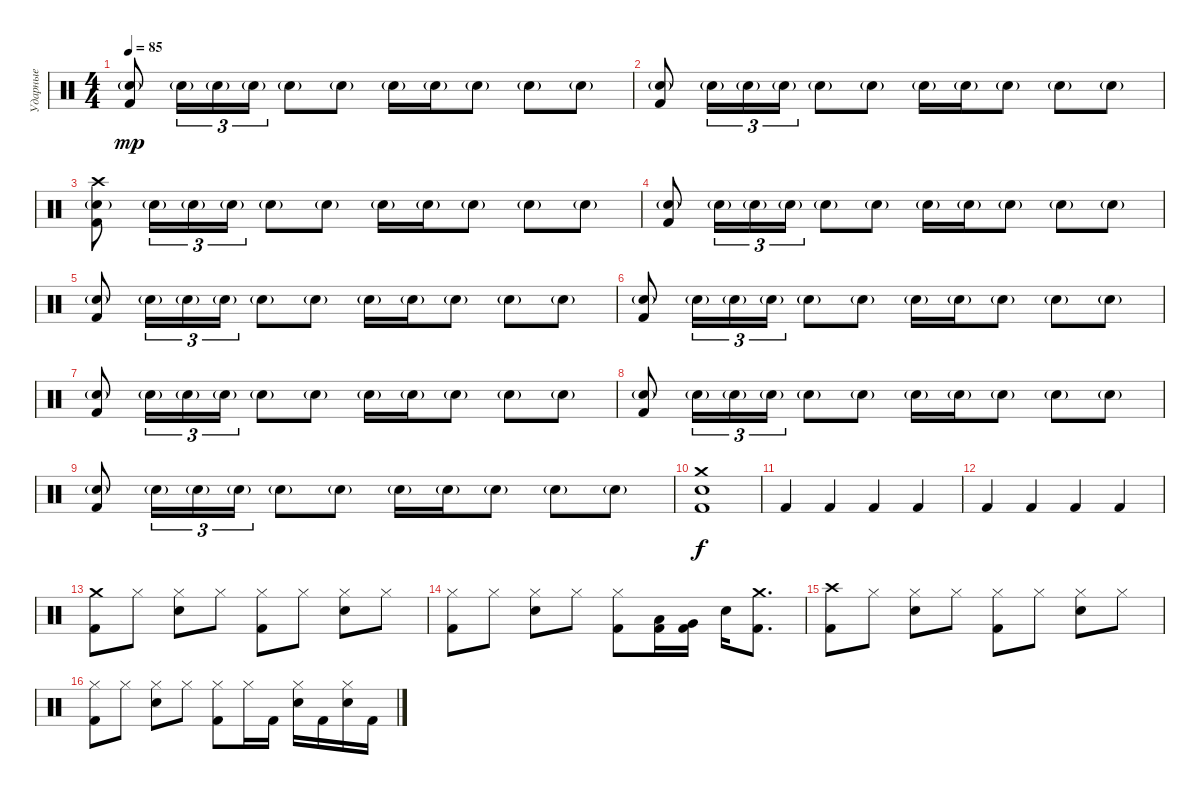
\track ("Ударные" "Ударные") {instrument percussion}
\staff {score}
\articulation defaults
\ts (4 4)
\tempo 85
\clef neutral
\ks c
("Electric Snare (hit)"{g} "Kick (hit) 2").8{dy mp} "Electric Snare (hit)"{g}.16{tu (3 2)} "Electric Snare (hit)"{g}.16{tu (3 2)} "Electric Snare (hit)"{g}.16{tu (3 2)} "Electric Snare (hit)"{g}.8 "Electric Snare (hit)"{g}.8 "Electric Snare (hit)"{g}.16 "Electric Snare (hit)"{g}.16 "Electric Snare (hit)"{g}.8 "Electric Snare (hit)"{g}.8 "Electric Snare (hit)"{g}.8 |
("Electric Snare (hit)"{g} "Kick (hit) 2").8 "Electric Snare (hit)"{g}.16{tu (3 2)} "Electric Snare (hit)"{g}.16{tu (3 2)} "Electric Snare (hit)"{g}.16{tu (3 2)} "Electric Snare (hit)"{g}.8 "Electric Snare (hit)"{g}.8 "Electric Snare (hit)"{g}.16 "Electric Snare (hit)"{g}.16 "Electric Snare (hit)"{g}.8 "Electric Snare (hit)"{g}.8 "Electric Snare (hit)"{g}.8 |
("Crash high (hit)" "Electric Snare (hit)"{g} "Kick (hit) 2").8 "Electric Snare (hit)"{g}.16{tu (3 2)} "Electric Snare (hit)"{g}.16{tu (3 2)} "Electric Snare (hit)"{g}.16{tu (3 2)} "Electric Snare (hit)"{g}.8 "Electric Snare (hit)"{g}.8 "Electric Snare (hit)"{g}.16 "Electric Snare (hit)"{g}.16 "Electric Snare (hit)"{g}.8 "Electric Snare (hit)"{g}.8 "Electric Snare (hit)"{g}.8 |
("Electric Snare (hit)"{g} "Kick (hit) 2").8 "Electric Snare (hit)"{g}.16{tu (3 2)} "Electric Snare (hit)"{g}.16{tu (3 2)} "Electric Snare (hit)"{g}.16{tu (3 2)} "Electric Snare (hit)"{g}.8 "Electric Snare (hit)"{g}.8 "Electric Snare (hit)"{g}.16 "Electric Snare (hit)"{g}.16 "Electric Snare (hit)"{g}.8 "Electric Snare (hit)"{g}.8 "Electric Snare (hit)"{g}.8 |
("Electric Snare (hit)"{g} "Kick (hit) 2").8 "Electric Snare (hit)"{g}.16{tu (3 2)} "Electric Snare (hit)"{g}.16{tu (3 2)} "Electric Snare (hit)"{g}.16{tu (3 2)} "Electric Snare (hit)"{g}.8 "Electric Snare (hit)"{g}.8 "Electric Snare (hit)"{g}.16 "Electric Snare (hit)"{g}.16 "Electric Snare (hit)"{g}.8 "Electric Snare (hit)"{g}.8 "Electric Snare (hit)"{g}.8 |
("Electric Snare (hit)"{g} "Kick (hit) 2").8 "Electric Snare (hit)"{g}.16{tu (3 2)} "Electric Snare (hit)"{g}.16{tu (3 2)} "Electric Snare (hit)"{g}.16{tu (3 2)} "Electric Snare (hit)"{g}.8 "Electric Snare (hit)"{g}.8 "Electric Snare (hit)"{g}.16 "Electric Snare (hit)"{g}.16 "Electric Snare (hit)"{g}.8 "Electric Snare (hit)"{g}.8 "Electric Snare (hit)"{g}.8 |
("Electric Snare (hit)"{g} "Kick (hit) 2").8 "Electric Snare (hit)"{g}.16{tu (3 2)} "Electric Snare (hit)"{g}.16{tu (3 2)} "Electric Snare (hit)"{g}.16{tu (3 2)} "Electric Snare (hit)"{g}.8 "Electric Snare (hit)"{g}.8 "Electric Snare (hit)"{g}.16 "Electric Snare (hit)"{g}.16 "Electric Snare (hit)"{g}.8 "Electric Snare (hit)"{g}.8 "Electric Snare (hit)"{g}.8 |
("Electric Snare (hit)"{g} "Kick (hit) 2").8 "Electric Snare (hit)"{g}.16{tu (3 2)} "Electric Snare (hit)"{g}.16{tu (3 2)} "Electric Snare (hit)"{g}.16{tu (3 2)} "Electric Snare (hit)"{g}.8 "Electric Snare (hit)"{g}.8 "Electric Snare (hit)"{g}.16 "Electric Snare (hit)"{g}.16 "Electric Snare (hit)"{g}.8 "Electric Snare (hit)"{g}.8 "Electric Snare (hit)"{g}.8 |
("Electric Snare (hit)"{g} "Kick (hit) 2").8 "Electric Snare (hit)"{g}.16{tu (3 2)} "Electric Snare (hit)"{g}.16{tu (3 2)} "Electric Snare (hit)"{g}.16{tu (3 2)} "Electric Snare (hit)"{g}.8 "Electric Snare (hit)"{g}.8 "Electric Snare (hit)"{g}.16 "Electric Snare (hit)"{g}.16 "Electric Snare (hit)"{g}.8 "Electric Snare (hit)"{g}.8 "Electric Snare (hit)"{g}.8 |
("Crash medium (hit)" "Electric Snare (hit)" "Kick (hit) 2").1{dy f} |
"Kick (hit) 2".4 "Kick (hit) 2".4 "Kick (hit) 2".4 "Kick (hit) 2".4 |
"Kick (hit) 2".4 "Kick (hit) 2".4 "Kick (hit) 2".4 "Kick (hit) 2".4 |
("Crash medium (hit)" "Kick (hit) 2").8 "Hi-Hat (closed)".8 ("Hi-Hat (closed)" "Electric Snare (hit)").8 "Hi-Hat (closed)".8 ("Hi-Hat (closed)" "Kick (hit) 2").8 "Hi-Hat (closed)".8 ("Hi-Hat (closed)" "Electric Snare (hit)").8 "Hi-Hat (closed)".8 |
("Hi-Hat (closed)" "Kick (hit) 2").8 "Hi-Hat (closed)".8 ("Hi-Hat (closed)" "Electric Snare (hit)").8 "Hi-Hat (closed)".8 ("Hi-Hat (closed)" "Kick (hit) 2").8 ("Low Tom (hit)" "Kick (hit) 2").16 ("Very Low Tom (hit)" "Kick (hit) 2").16 "Electric Snare (hit)".16 ("Crash medium (hit)" "Kick (hit) 2").8{d} |
("Crash high (hit)" "Kick (hit) 2").8 "Hi-Hat (closed)".8 ("Hi-Hat (closed)" "Electric Snare (hit)").8 "Hi-Hat (closed)".8 ("Hi-Hat (closed)" "Kick (hit) 2").8 "Hi-Hat (closed)".8 ("Hi-Hat (closed)" "Electric Snare (hit)").8 "Hi-Hat (closed)".8 |
("Hi-Hat (closed)" "Kick (hit) 2").8 "Hi-Hat (closed)".8 ("Hi-Hat (closed)" "Electric Snare (hit)").8 "Hi-Hat (closed)".8 ("Hi-Hat (closed)" "Kick (hit) 2").8 "Hi-Hat (closed)".16 "Kick (hit) 2".16 ("Hi-Hat (closed)" "Electric Snare (hit)").16 "Kick (hit) 2".16 ("Hi-Hat (closed)" "Electric Snare (hit)").16 "Kick (hit) 2".16
